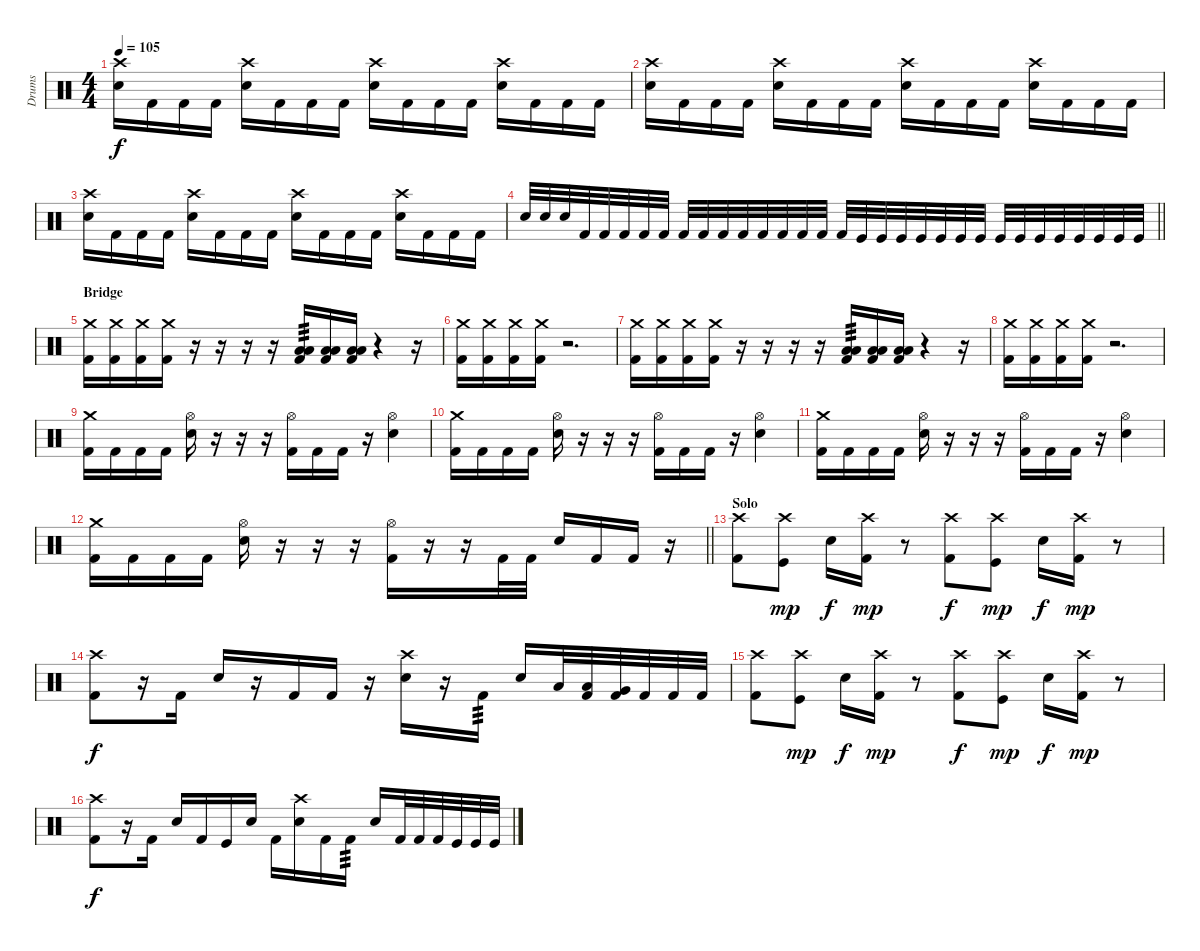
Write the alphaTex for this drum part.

\track ("Drums" "Drums") {instrument percussion}
\staff {score}
\articulation defaults
\ts (4 4)
\tempo 105
\clef neutral
\ks c
("Crash high (hit)" "Snare (hit) 2").16{dy f} "Kick (hit) 2".16 "Kick (hit) 2".16 "Kick (hit) 2".16 ("Crash high (hit)" "Snare (hit) 2").16 "Kick (hit) 2".16 "Kick (hit) 2".16 "Kick (hit) 2".16 ("Crash high (hit)" "Snare (hit) 2").16 "Kick (hit) 2".16 "Kick (hit) 2".16 "Kick (hit) 2".16 ("Crash high (hit)" "Snare (hit) 2").16 "Kick (hit) 2".16 "Kick (hit) 2".16 "Kick (hit) 2".16 |
("Crash high (hit)" "Snare (hit) 2").16 "Kick (hit) 2".16 "Kick (hit) 2".16 "Kick (hit) 2".16 ("Crash high (hit)" "Snare (hit) 2").16 "Kick (hit) 2".16 "Kick (hit) 2".16 "Kick (hit) 2".16 ("Crash high (hit)" "Snare (hit) 2").16 "Kick (hit) 2".16 "Kick (hit) 2".16 "Kick (hit) 2".16 ("Crash high (hit)" "Snare (hit) 2").16 "Kick (hit) 2".16 "Kick (hit) 2".16 "Kick (hit) 2".16 |
("Crash high (hit)" "Snare (hit) 2").16 "Kick (hit) 2".16 "Kick (hit) 2".16 "Kick (hit) 2".16 ("Crash high (hit)" "Snare (hit) 2").16 "Kick (hit) 2".16 "Kick (hit) 2".16 "Kick (hit) 2".16 ("Crash high (hit)" "Snare (hit) 2").16 "Kick (hit) 2".16 "Kick (hit) 2".16 "Kick (hit) 2".16 ("Crash high (hit)" "Snare (hit) 2").16 "Kick (hit) 2".16 "Kick (hit) 2".16 "Kick (hit) 2".16 |
\barLineRight lightlight "Snare (hit) 2".32 "Snare (hit) 2".32 "Snare (hit) 2".32 "Kick (hit) 2".32 "Kick (hit) 2".32 "Kick (hit) 2".32 "Kick (hit) 2".32 "Kick (hit) 2".32 "Kick (hit) 2".32 "Kick (hit) 2".32 "Kick (hit) 2".32 "Kick (hit) 2".32 "Kick (hit) 2".32 "Kick (hit) 2".32 "Kick (hit) 2".32 "Kick (hit) 2".32 "Kick (hit) 2".32 "Kick (hit)".32 "Kick (hit)".32 "Kick (hit)".32 "Kick (hit)".32 "Kick (hit)".32 "Kick (hit)".32 "Kick (hit)".32 "Kick (hit)".32 "Kick (hit)".32 "Kick (hit)".32 "Kick (hit)".32 "Kick (hit)".32 "Kick (hit)".32 "Kick (hit)".32 "Kick (hit)".32
|
\section ("" "Bridge")
("Crash medium (hit)" "Kick (hit) 2").16 ("Crash medium (hit)" "Kick (hit) 2").16 ("Crash medium (hit)" "Kick (hit) 2").16 ("Crash medium (hit)" "Kick (hit) 2").16 r.16 r.16 r.16 r.16 ("Low Floor Tom (hit)" "Low Tom (hit)" "Kick (hit) 2").16{tp 3} ("Low Floor Tom (hit)" "Low Tom (hit)" "Kick (hit) 2").16 ("Low Floor Tom (hit)" "Low Tom (hit)" "Kick (hit) 2").16 r.4 r.16 |
("Crash medium (hit)" "Kick (hit) 2").16 ("Crash medium (hit)" "Kick (hit) 2").16 ("Crash medium (hit)" "Kick (hit) 2").16 ("Crash medium (hit)" "Kick (hit) 2").16 r.2{d} |
("Crash medium (hit)" "Kick (hit) 2").16 ("Crash medium (hit)" "Kick (hit) 2").16 ("Crash medium (hit)" "Kick (hit) 2").16 ("Crash medium (hit)" "Kick (hit) 2").16 r.16 r.16 r.16 r.16 ("Low Floor Tom (hit)" "Low Tom (hit)" "Kick (hit) 2").16{tp 3} ("Low Floor Tom (hit)" "Low Tom (hit)" "Kick (hit) 2").16 ("Low Floor Tom (hit)" "Low Tom (hit)" "Kick (hit) 2").16 r.4 r.16 |
("Crash medium (hit)" "Kick (hit) 2").16 ("Crash medium (hit)" "Kick (hit) 2").16 ("Crash medium (hit)" "Kick (hit) 2").16 ("Crash medium (hit)" "Kick (hit) 2").16 r.2{d} |
("Crash medium (hit)" "Kick (hit) 2").16 "Kick (hit) 2".16 "Kick (hit) 2".16 "Kick (hit) 2".16 ("Hi-Hat (open)" "Snare (hit) 2").16 r.16 r.16 r.16 ("Hi-Hat (open)" "Kick (hit) 2").16 "Kick (hit) 2".16 "Kick (hit) 2".16 r.16 ("Hi-Hat (open)" "Snare (hit) 2").4 |
("Crash medium (hit)" "Kick (hit) 2").16 "Kick (hit) 2".16 "Kick (hit) 2".16 "Kick (hit) 2".16 ("Hi-Hat (open)" "Snare (hit) 2").16 r.16 r.16 r.16 ("Hi-Hat (open)" "Kick (hit) 2").16 "Kick (hit) 2".16 "Kick (hit) 2".16 r.16 ("Hi-Hat (open)" "Snare (hit) 2").4 |
("Crash medium (hit)" "Kick (hit) 2").16 "Kick (hit) 2".16 "Kick (hit) 2".16 "Kick (hit) 2".16 ("Hi-Hat (open)" "Snare (hit) 2").16 r.16 r.16 r.16 ("Hi-Hat (open)" "Kick (hit) 2").16 "Kick (hit) 2".16 "Kick (hit) 2".16 r.16 ("Hi-Hat (open)" "Snare (hit) 2").4 |
\barLineRight lightlight
("Crash medium (hit)" "Kick (hit) 2").16 "Kick (hit) 2".16 "Kick (hit) 2".16 "Kick (hit) 2".16 ("Hi-Hat (open)" "Snare (hit) 2").16 r.16 r.16 r.16 ("Hi-Hat (open)" "Kick (hit) 2").16 r.16 r.16 "Kick (hit) 2".32 "Kick (hit) 2".32 "Snare (hit) 2".16 "Kick (hit) 2".16 "Kick (hit) 2".16 r.16 |
\section ("" "Solo")
("Crash high (hit)" "Kick (hit) 2").8 ("Crash high (hit)" "Kick (hit)").8{dy mp} "Snare (hit) 2".16{dy f} ("Crash high (hit)" "Kick (hit) 2").16{dy mp} r.8 ("Crash high (hit)" "Kick (hit) 2").8{dy f} ("Crash high (hit)" "Kick (hit)").8{dy mp} "Snare (hit) 2".16{dy f} ("Crash high (hit)" "Kick (hit) 2").16{dy mp} r.8 |
("Crash high (hit)" "Kick (hit) 2").8{dy f} r.16 "Kick (hit) 2".16 "Snare (hit) 2".16 r.16 "Kick (hit) 2".16 "Kick (hit) 2".16 r.16 ("Crash high (hit)" "Snare (hit) 2").16 r.16 "Kick (hit) 2".16{tp 3} "Snare (hit) 2".16 "Low Tom (hit)".32 ("Low Tom (hit)" "Kick (hit) 2").32 ("Very Low Tom (hit)" "Kick (hit) 2").32 "Kick (hit) 2".32 "Kick (hit) 2".32 "Kick (hit) 2".32 |
("Crash high (hit)" "Kick (hit) 2").8 ("Crash high (hit)" "Kick (hit)").8{dy mp} "Snare (hit) 2".16{dy f} ("Crash high (hit)" "Kick (hit) 2").16{dy mp} r.8 ("Crash high (hit)" "Kick (hit) 2").8{dy f} ("Crash high (hit)" "Kick (hit)").8{dy mp} "Snare (hit) 2".16{dy f} ("Crash high (hit)" "Kick (hit) 2").16{dy mp} r.8 |
("Crash high (hit)" "Kick (hit) 2").8{dy f} r.16 "Kick (hit) 2".16 "Snare (hit) 2".16 "Kick (hit) 2".16 "Kick (hit)".16 "Snare (hit) 2".16 "Kick (hit) 2".16 ("Crash high (hit)" "Snare (hit) 2").16 "Kick (hit) 2".16 "Kick (hit) 2".16{tp 3} "Snare (hit) 2".16 "Kick (hit) 2".32 "Kick (hit) 2".32 "Kick (hit) 2".32 "Kick (hit)".32 "Kick (hit)".32 "Kick (hit)".32
